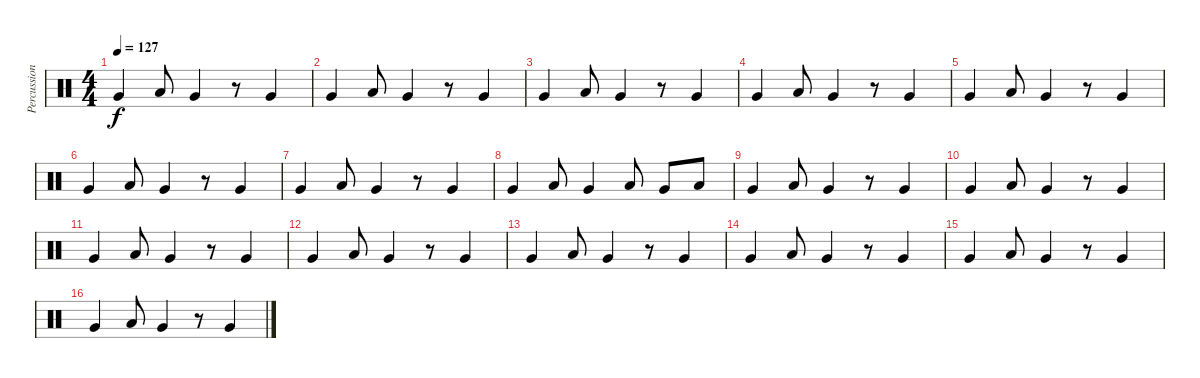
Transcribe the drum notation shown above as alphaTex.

\track ("Percussion" "Percussion") {instrument percussion}
\staff {score}
\articulation defaults
\ts (4 4)
\tempo 127
\clef neutral
\ks c "Very Low Tom (hit)".4{dy f} "Low Floor Tom (hit)".8 "Very Low Tom (hit)".4
r.8 "Very Low Tom (hit)".4 |
"Very Low Tom (hit)".4 "Low Floor Tom (hit)".8 "Very Low Tom (hit)".4 r.8 "Very Low Tom (hit)".4 |
"Very Low Tom (hit)".4 "Low Floor Tom (hit)".8 "Very Low Tom (hit)".4 r.8 "Very Low Tom (hit)".4 |
"Very Low Tom (hit)".4 "Low Floor Tom (hit)".8 "Very Low Tom (hit)".4 r.8 "Very Low Tom (hit)".4 |
"Very Low Tom (hit)".4 "Low Floor Tom (hit)".8 "Very Low Tom (hit)".4 r.8 "Very Low Tom (hit)".4 |
"Very Low Tom (hit)".4 "Low Floor Tom (hit)".8 "Very Low Tom (hit)".4 r.8 "Very Low Tom (hit)".4 |
"Very Low Tom (hit)".4 "Low Floor Tom (hit)".8 "Very Low Tom (hit)".4 r.8 "Very Low Tom (hit)".4 |
"Very Low Tom (hit)".4 "Low Floor Tom (hit)".8 "Very Low Tom (hit)".4 "Low Floor Tom (hit)".8 "Very Low Tom (hit)".8 "Low Floor Tom (hit)".8 |
"Very Low Tom (hit)".4 "Low Floor Tom (hit)".8 "Very Low Tom (hit)".4 r.8 "Very Low Tom (hit)".4 |
"Very Low Tom (hit)".4 "Low Floor Tom (hit)".8 "Very Low Tom (hit)".4 r.8 "Very Low Tom (hit)".4 |
"Very Low Tom (hit)".4 "Low Floor Tom (hit)".8 "Very Low Tom (hit)".4 r.8 "Very Low Tom (hit)".4 |
"Very Low Tom (hit)".4 "Low Floor Tom (hit)".8 "Very Low Tom (hit)".4 r.8 "Very Low Tom (hit)".4 |
"Very Low Tom (hit)".4 "Low Floor Tom (hit)".8 "Very Low Tom (hit)".4 r.8 "Very Low Tom (hit)".4 |
"Very Low Tom (hit)".4 "Low Floor Tom (hit)".8 "Very Low Tom (hit)".4 r.8 "Very Low Tom (hit)".4 |
"Very Low Tom (hit)".4 "Low Floor Tom (hit)".8 "Very Low Tom (hit)".4 r.8 "Very Low Tom (hit)".4 |
"Very Low Tom (hit)".4 "Low Floor Tom (hit)".8 "Very Low Tom (hit)".4 r.8 "Very Low Tom (hit)".4
